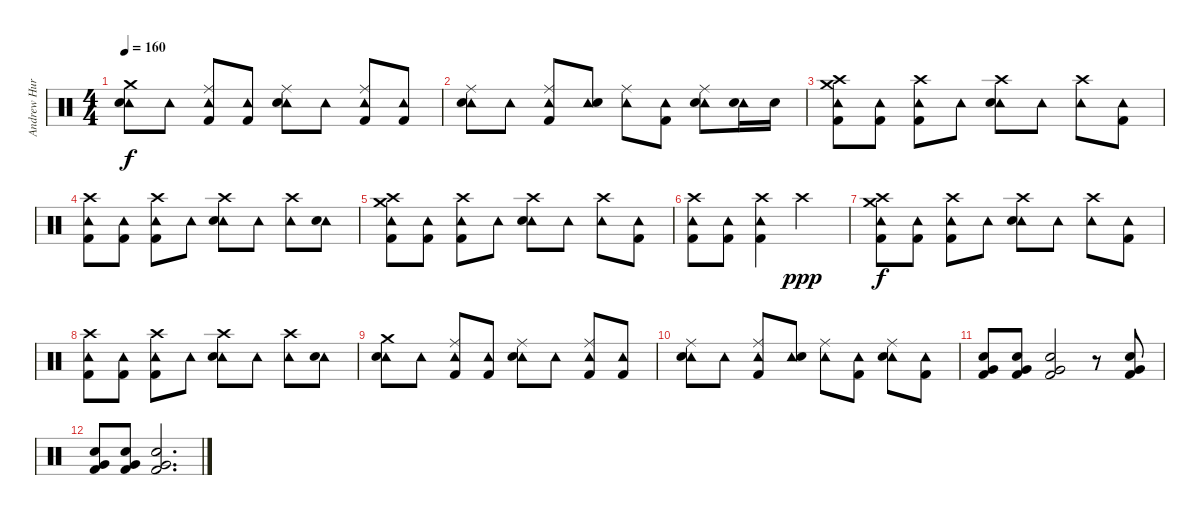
\track ("Andrew Hurley (Drums)" "Andrew Hur") {instrument percussion}
\staff {score}
\articulation defaults
\ts (4 4)
\tempo 160
\clef neutral
\ks c
("Crash medium (hit)" "Tambourine (hit)" "Snare (hit) 2").8{dy f} "Tambourine (hit)".8 ("Ride (middle)" "Tambourine (hit)" "Kick (hit) 2").8 ("Tambourine (hit)" "Kick (hit) 2").8 ("Ride (middle)" "Tambourine (hit)" "Snare (hit) 2").8 "Tambourine (hit)".8 ("Ride (middle)" "Tambourine (hit)" "Kick (hit) 2").8 ("Tambourine (hit)" "Kick (hit) 2").8 |
("Ride (middle)" "Tambourine (hit)" "Snare (hit) 2").8 "Tambourine (hit)".8 ("Ride (middle)" "Tambourine (hit)" "Kick (hit) 2").8 ("Tambourine (hit)" "Snare (hit) 2").8 ("Ride (middle)" "Tambourine (hit)").8 ("Tambourine (hit)" "Kick (hit) 2").8 ("Ride (middle)" "Tambourine (hit)" "Snare (hit) 2").8 ("Tambourine (hit)" "Snare (hit) 2").16 "Snare (hit) 2".16 |
("Crash high (hit)" "Crash medium (hit)" "Tambourine (hit)" "Kick (hit) 2").8 ("Tambourine (hit)" "Kick (hit) 2").8 ("Crash high (hit)" "Tambourine (hit)" "Kick (hit) 2").8 "Tambourine (hit)".8 ("Crash high (hit)" "Tambourine (hit)" "Snare (hit) 2").8 "Tambourine (hit)".8 ("Crash high (hit)" "Tambourine (hit)").8 ("Tambourine (hit)" "Kick (hit) 2").8 |
("Crash high (hit)" "Tambourine (hit)" "Kick (hit) 2").8 ("Tambourine (hit)" "Kick (hit) 2").8 ("Crash high (hit)" "Tambourine (hit)" "Kick (hit) 2").8 "Tambourine (hit)".8 ("Crash high (hit)" "Tambourine (hit)" "Snare (hit) 2").8 "Tambourine (hit)".8 ("Crash high (hit)" "Tambourine (hit)").8 ("Tambourine (hit)" "Snare (hit) 2").8 |
("Crash high (hit)" "Crash medium (hit)" "Tambourine (hit)" "Kick (hit) 2").8 ("Tambourine (hit)" "Kick (hit) 2").8 ("Crash high (hit)" "Tambourine (hit)" "Kick (hit) 2").8 "Tambourine (hit)".8 ("Crash high (hit)" "Tambourine (hit)" "Snare (hit) 2").8 "Tambourine (hit)".8 ("Crash high (hit)" "Tambourine (hit)").8 ("Tambourine (hit)" "Kick (hit) 2").8 |
("Crash high (hit)" "Tambourine (hit)" "Kick (hit) 2").8 ("Tambourine (hit)" "Kick (hit) 2").8 ("Crash high (hit)" "Tambourine (hit)" "Kick (hit) 2").4 "Crash high (hit)".2{dy ppp} |
("Crash high (hit)" "Crash medium (hit)" "Tambourine (hit)" "Kick (hit) 2").8{dy f} ("Tambourine (hit)" "Kick (hit) 2").8 ("Crash high (hit)" "Tambourine (hit)" "Kick (hit) 2").8 "Tambourine (hit)".8 ("Crash high (hit)" "Tambourine (hit)" "Snare (hit) 2").8 "Tambourine (hit)".8 ("Crash high (hit)" "Tambourine (hit)").8 ("Tambourine (hit)" "Kick (hit) 2").8 |
("Crash high (hit)" "Tambourine (hit)" "Kick (hit) 2").8 ("Tambourine (hit)" "Kick (hit) 2").8 ("Crash high (hit)" "Tambourine (hit)" "Kick (hit) 2").8 "Tambourine (hit)".8 ("Crash high (hit)" "Tambourine (hit)" "Snare (hit) 2").8 "Tambourine (hit)".8 ("Crash high (hit)" "Tambourine (hit)").8 ("Tambourine (hit)" "Snare (hit) 2").8 |
("Crash medium (hit)" "Tambourine (hit)" "Snare (hit) 2").8 "Tambourine (hit)".8 ("Ride (middle)" "Tambourine (hit)" "Kick (hit) 2").8 ("Tambourine (hit)" "Kick (hit) 2").8 ("Ride (middle)" "Tambourine (hit)" "Snare (hit) 2").8 "Tambourine (hit)".8 ("Ride (middle)" "Tambourine (hit)" "Kick (hit) 2").8 ("Tambourine (hit)" "Kick (hit) 2").8 |
("Ride (middle)" "Tambourine (hit)" "Snare (hit) 2").8 "Tambourine (hit)".8 ("Ride (middle)" "Tambourine (hit)" "Kick (hit) 2").8 ("Tambourine (hit)" "Snare (hit) 2").8 ("Ride (middle)" "Tambourine (hit)").8 ("Tambourine (hit)" "Kick (hit) 2").8 ("Ride (middle)" "Tambourine (hit)" "Snare (hit) 2").8 ("Tambourine (hit)" "Kick (hit) 2").8 |
("Very Low Tom (hit)" "Snare (hit) 2" "Kick (hit) 2").8 ("Very Low Tom (hit)" "Snare (hit) 2" "Kick (hit) 2").8 ("Very Low Tom (hit)" "Snare (hit) 2" "Kick (hit) 2").2 r.8 ("Very Low Tom (hit)" "Snare (hit) 2" "Kick (hit) 2").8 |
("Very Low Tom (hit)" "Snare (hit) 2" "Kick (hit) 2").8 ("Very Low Tom (hit)" "Snare (hit) 2" "Kick (hit) 2").8 ("Very Low Tom (hit)" "Snare (hit) 2" "Kick (hit) 2").2{d}
